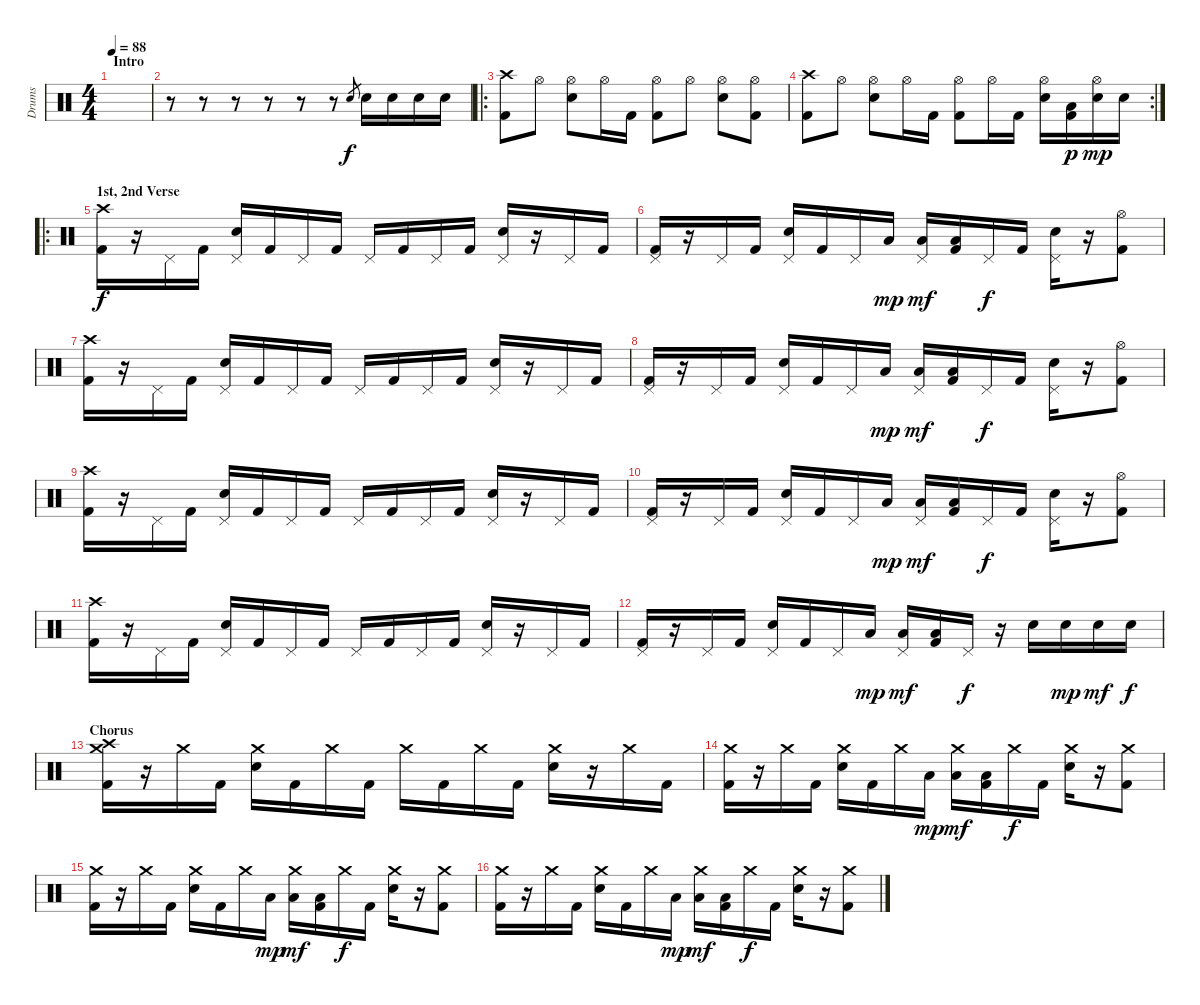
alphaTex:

\track ("Drums" "Drums") {instrument percussion}
\staff {score}
\articulation defaults
\ts (4 4)
\section ("" "Intro")
\tempo 88
\clef neutral
\ks c
|
r.8 r.8 r.8 r.8 r.8 r.8 "Electric Snare (hit)".8{gr} "Electric Snare (hit)".16{dy f} "Electric Snare (hit)".16 "Electric Snare (hit)".16 "Electric Snare (hit)".16 |
\ro
("Crash high (hit)" "Kick (hit) 2").8 "Hi-Hat (open)".8 ("Hi-Hat (open)" "Electric Snare (hit)").8 "Hi-Hat (open)".16 "Kick (hit) 2".16 ("Hi-Hat (open)" "Kick (hit) 2").8 "Hi-Hat (open)".8 ("Hi-Hat (open)" "Electric Snare (hit)").8 ("Hi-Hat (open)" "Kick (hit) 2").8 |
\rc 2
("Crash high (hit)" "Kick (hit) 2").8 "Hi-Hat (open)".8 ("Hi-Hat (open)" "Electric Snare (hit)").8 "Hi-Hat (open)".16 "Kick (hit) 2".16 ("Hi-Hat (open)" "Kick (hit) 2").8 "Hi-Hat (open)".16 "Kick (hit) 2".16 ("Hi-Hat (open)" "Electric Snare (hit)").16 ("Low Tom (hit)" "Kick (hit) 2").16{dy p} ("Hi-Hat (open)" "Electric Snare (hit)").16{dy mp} "Electric Snare (hit)".16 |
\ro
\section ("" "1st, 2nd Verse")
("Crash high (hit)" "Kick (hit) 2").16{dy f} r.16 "Pedal Hi-Hat (hit)".16 "Kick (hit) 2".16 ("Pedal Hi-Hat (hit)" "Electric Snare (hit)").16 "Kick (hit) 2".16 "Pedal Hi-Hat (hit)".16 "Kick (hit) 2".16 "Pedal Hi-Hat (hit)".16 "Kick (hit) 2".16 "Pedal Hi-Hat (hit)".16 "Kick (hit) 2".16 ("Pedal Hi-Hat (hit)" "Electric Snare (hit)").16 r.16 "Pedal Hi-Hat (hit)".16 "Kick (hit) 2".16 |
("Pedal Hi-Hat (hit)" "Kick (hit) 2").16 r.16 "Pedal Hi-Hat (hit)".16 "Kick (hit) 2".16 ("Pedal Hi-Hat (hit)" "Electric Snare (hit)").16 "Kick (hit) 2".16 "Pedal Hi-Hat (hit)".16 "Low Tom (hit)".16{dy mp} ("Pedal Hi-Hat (hit)" "Low Tom (hit)").16{dy mf} ("Low Tom (hit)" "Kick (hit) 2").16 "Pedal Hi-Hat (hit)".16{dy f} "Kick (hit) 2".16 ("Pedal Hi-Hat (hit)" "Electric Snare (hit)").16 r.16 ("Hi-Hat (open)" "Kick (hit) 2").8 |
("Crash high (hit)" "Kick (hit) 2").16 r.16 "Pedal Hi-Hat (hit)".16 "Kick (hit) 2".16 ("Pedal Hi-Hat (hit)" "Electric Snare (hit)").16 "Kick (hit) 2".16 "Pedal Hi-Hat (hit)".16 "Kick (hit) 2".16 "Pedal Hi-Hat (hit)".16 "Kick (hit) 2".16 "Pedal Hi-Hat (hit)".16 "Kick (hit) 2".16 ("Pedal Hi-Hat (hit)" "Electric Snare (hit)").16 r.16 "Pedal Hi-Hat (hit)".16 "Kick (hit) 2".16 |
("Pedal Hi-Hat (hit)" "Kick (hit) 2").16 r.16 "Pedal Hi-Hat (hit)".16 "Kick (hit) 2".16 ("Pedal Hi-Hat (hit)" "Electric Snare (hit)").16 "Kick (hit) 2".16 "Pedal Hi-Hat (hit)".16 "Low Tom (hit)".16{dy mp} ("Pedal Hi-Hat (hit)" "Low Tom (hit)").16{dy mf} ("Low Tom (hit)" "Kick (hit) 2").16 "Pedal Hi-Hat (hit)".16{dy f} "Kick (hit) 2".16 ("Pedal Hi-Hat (hit)" "Electric Snare (hit)").16 r.16 ("Hi-Hat (open)" "Kick (hit) 2").8 |
("Crash high (hit)" "Kick (hit) 2").16 r.16 "Pedal Hi-Hat (hit)".16 "Kick (hit) 2".16 ("Pedal Hi-Hat (hit)" "Electric Snare (hit)").16 "Kick (hit) 2".16 "Pedal Hi-Hat (hit)".16 "Kick (hit) 2".16 "Pedal Hi-Hat (hit)".16 "Kick (hit) 2".16 "Pedal Hi-Hat (hit)".16 "Kick (hit) 2".16 ("Pedal Hi-Hat (hit)" "Electric Snare (hit)").16 r.16 "Pedal Hi-Hat (hit)".16 "Kick (hit) 2".16 |
("Pedal Hi-Hat (hit)" "Kick (hit) 2").16 r.16 "Pedal Hi-Hat (hit)".16 "Kick (hit) 2".16 ("Pedal Hi-Hat (hit)" "Electric Snare (hit)").16 "Kick (hit) 2".16 "Pedal Hi-Hat (hit)".16 "Low Tom (hit)".16{dy mp} ("Pedal Hi-Hat (hit)" "Low Tom (hit)").16{dy mf} ("Low Tom (hit)" "Kick (hit) 2").16 "Pedal Hi-Hat (hit)".16{dy f} "Kick (hit) 2".16 ("Pedal Hi-Hat (hit)" "Electric Snare (hit)").16 r.16 ("Hi-Hat (open)" "Kick (hit) 2").8 |
("Crash high (hit)" "Kick (hit) 2").16 r.16 "Pedal Hi-Hat (hit)".16 "Kick (hit) 2".16 ("Pedal Hi-Hat (hit)" "Electric Snare (hit)").16 "Kick (hit) 2".16 "Pedal Hi-Hat (hit)".16 "Kick (hit) 2".16 "Pedal Hi-Hat (hit)".16 "Kick (hit) 2".16 "Pedal Hi-Hat (hit)".16 "Kick (hit) 2".16 ("Pedal Hi-Hat (hit)" "Electric Snare (hit)").16 r.16 "Pedal Hi-Hat (hit)".16 "Kick (hit) 2".16 |
("Pedal Hi-Hat (hit)" "Kick (hit) 2").16 r.16 "Pedal Hi-Hat (hit)".16 "Kick (hit) 2".16 ("Pedal Hi-Hat (hit)" "Electric Snare (hit)").16 "Kick (hit) 2".16 "Pedal Hi-Hat (hit)".16 "Low Tom (hit)".16{dy mp} ("Pedal Hi-Hat (hit)" "Low Tom (hit)").16{dy mf} ("Low Tom (hit)" "Kick (hit) 2").16 "Pedal Hi-Hat (hit)".16{dy f} r.16 "Electric Snare (hit)".16 "Electric Snare (hit)".16{dy mp} "Electric Snare (hit)".16{dy mf} "Electric Snare (hit)".16{dy f} |
\section ("" "Chorus")
("Crash medium (hit)" "Crash high (hit)" "Kick (hit) 2").16 r.16 "Crash medium (hit)".16 "Kick (hit) 2".16 ("Crash medium (hit)" "Electric Snare (hit)").16 "Kick (hit) 2".16 "Crash medium (hit)".16 "Kick (hit) 2".16 "Crash medium (hit)".16 "Kick (hit) 2".16 "Crash medium (hit)".16 "Kick (hit) 2".16 ("Crash medium (hit)" "Electric Snare (hit)").16 r.16 "Crash medium (hit)".16 "Kick (hit) 2".16 |
("Crash medium (hit)" "Kick (hit) 2").16 r.16 "Crash medium (hit)".16 "Kick (hit) 2".16 ("Crash medium (hit)" "Electric Snare (hit)").16 "Kick (hit) 2".16 "Crash medium (hit)".16 "Low Tom (hit)".16{dy mp} ("Crash medium (hit)" "Low Tom (hit)").16{dy mf} ("Low Tom (hit)" "Kick (hit) 2").16 "Crash medium (hit)".16{dy f} "Kick (hit) 2".16 ("Crash medium (hit)" "Electric Snare (hit)").16 r.16 ("Crash medium (hit)" "Kick (hit) 2").8 |
("Crash medium (hit)" "Kick (hit) 2").16 r.16 "Crash medium (hit)".16 "Kick (hit) 2".16 ("Crash medium (hit)" "Electric Snare (hit)").16 "Kick (hit) 2".16 "Crash medium (hit)".16 "Low Tom (hit)".16{dy mp} ("Crash medium (hit)" "Low Tom (hit)").16{dy mf} ("Low Tom (hit)" "Kick (hit) 2").16 "Crash medium (hit)".16{dy f} "Kick (hit) 2".16 ("Crash medium (hit)" "Electric Snare (hit)").16 r.16 ("Crash medium (hit)" "Kick (hit) 2").8 |
("Crash medium (hit)" "Kick (hit) 2").16 r.16 "Crash medium (hit)".16 "Kick (hit) 2".16 ("Crash medium (hit)" "Electric Snare (hit)").16 "Kick (hit) 2".16 "Crash medium (hit)".16 "Low Tom (hit)".16{dy mp} ("Crash medium (hit)" "Low Tom (hit)").16{dy mf} ("Low Tom (hit)" "Kick (hit) 2").16 "Crash medium (hit)".16{dy f} "Kick (hit) 2".16 ("Crash medium (hit)" "Electric Snare (hit)").16 r.16 ("Crash medium (hit)" "Kick (hit) 2").8
